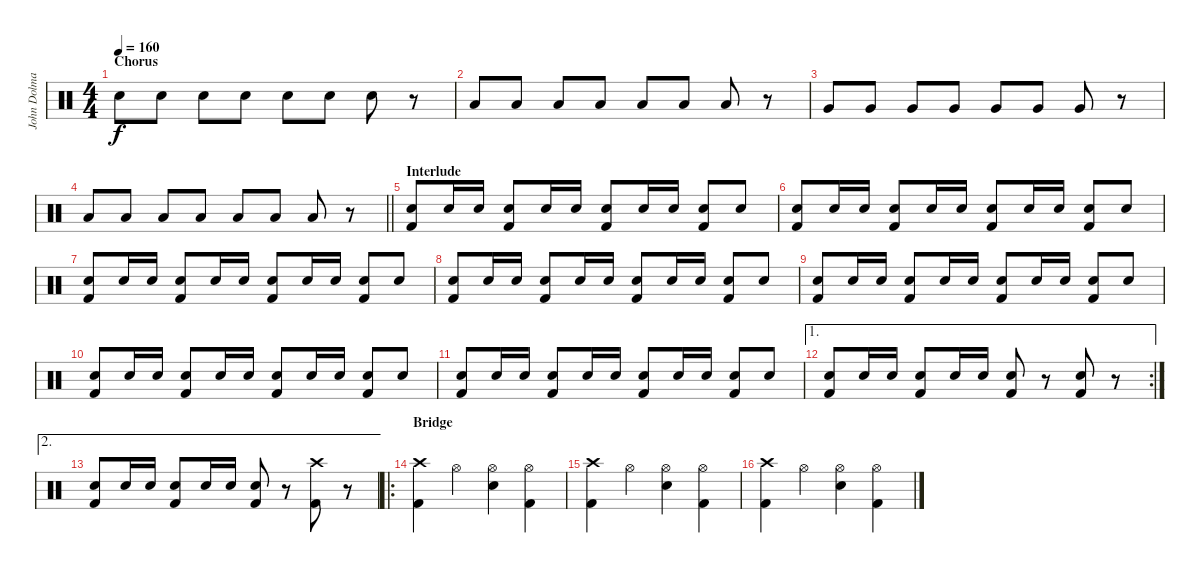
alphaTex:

\track ("John Dolmayan" "John Dolma") {instrument percussion}
\staff {score}
\articulation defaults
\ts (4 4)
\section ("" "Chorus")
\tempo 160
\clef neutral
\ks c "Electric Snare (hit)".8{dy f} "Electric Snare (hit)".8 "Electric Snare (hit)".8 "Electric Snare (hit)".8 "Electric Snare (hit)".8 "Electric Snare (hit)".8 "Electric Snare (hit)".8
r.8 |
"Low Tom (hit)".8 "Low Tom (hit)".8 "Low Tom (hit)".8 "Low Tom (hit)".8 "Low Tom (hit)".8 "Low Tom (hit)".8 "Low Tom (hit)".8 r.8 |
"Very Low Tom (hit)".8 "Very Low Tom (hit)".8 "Very Low Tom (hit)".8 "Very Low Tom (hit)".8 "Very Low Tom (hit)".8 "Very Low Tom (hit)".8 "Very Low Tom (hit)".8 r.8 |
\barLineRight lightlight "Low Floor Tom (hit)".8 "Low Floor Tom (hit)".8 "Low Floor Tom (hit)".8 "Low Floor Tom (hit)".8 "Low Floor Tom (hit)".8 "Low Floor Tom (hit)".8 "Low Floor Tom (hit)".8
r.8 |
\section ("" "Interlude")
("Electric Snare (hit)" "Kick (hit) 2").8 "Electric Snare (hit)".16 "Electric Snare (hit)".16 ("Electric Snare (hit)" "Kick (hit) 2").8 "Electric Snare (hit)".16 "Electric Snare (hit)".16 ("Electric Snare (hit)" "Kick (hit) 2").8 "Electric Snare (hit)".16 "Electric Snare (hit)".16 ("Electric Snare (hit)" "Kick (hit) 2").8 "Electric Snare (hit)".8 |
("Electric Snare (hit)" "Kick (hit) 2").8 "Electric Snare (hit)".16 "Electric Snare (hit)".16 ("Electric Snare (hit)" "Kick (hit) 2").8 "Electric Snare (hit)".16 "Electric Snare (hit)".16 ("Electric Snare (hit)" "Kick (hit) 2").8 "Electric Snare (hit)".16 "Electric Snare (hit)".16 ("Electric Snare (hit)" "Kick (hit) 2").8 "Electric Snare (hit)".8 |
("Electric Snare (hit)" "Kick (hit) 2").8 "Electric Snare (hit)".16 "Electric Snare (hit)".16 ("Electric Snare (hit)" "Kick (hit) 2").8 "Electric Snare (hit)".16 "Electric Snare (hit)".16 ("Electric Snare (hit)" "Kick (hit) 2").8 "Electric Snare (hit)".16 "Electric Snare (hit)".16 ("Electric Snare (hit)" "Kick (hit) 2").8 "Electric Snare (hit)".8 |
("Electric Snare (hit)" "Kick (hit) 2").8 "Electric Snare (hit)".16 "Electric Snare (hit)".16 ("Electric Snare (hit)" "Kick (hit) 2").8 "Electric Snare (hit)".16 "Electric Snare (hit)".16 ("Electric Snare (hit)" "Kick (hit) 2").8 "Electric Snare (hit)".16 "Electric Snare (hit)".16 ("Electric Snare (hit)" "Kick (hit) 2").8 "Electric Snare (hit)".8 |
("Electric Snare (hit)" "Kick (hit) 2").8 "Electric Snare (hit)".16 "Electric Snare (hit)".16 ("Electric Snare (hit)" "Kick (hit) 2").8 "Electric Snare (hit)".16 "Electric Snare (hit)".16 ("Electric Snare (hit)" "Kick (hit) 2").8 "Electric Snare (hit)".16 "Electric Snare (hit)".16 ("Electric Snare (hit)" "Kick (hit) 2").8 "Electric Snare (hit)".8 |
("Electric Snare (hit)" "Kick (hit) 2").8 "Electric Snare (hit)".16 "Electric Snare (hit)".16 ("Electric Snare (hit)" "Kick (hit) 2").8 "Electric Snare (hit)".16 "Electric Snare (hit)".16 ("Electric Snare (hit)" "Kick (hit) 2").8 "Electric Snare (hit)".16 "Electric Snare (hit)".16 ("Electric Snare (hit)" "Kick (hit) 2").8 "Electric Snare (hit)".8 |
("Electric Snare (hit)" "Kick (hit) 2").8 "Electric Snare (hit)".16 "Electric Snare (hit)".16 ("Electric Snare (hit)" "Kick (hit) 2").8 "Electric Snare (hit)".16 "Electric Snare (hit)".16 ("Electric Snare (hit)" "Kick (hit) 2").8 "Electric Snare (hit)".16 "Electric Snare (hit)".16 ("Electric Snare (hit)" "Kick (hit) 2").8 "Electric Snare (hit)".8 |
\ae 1
\rc 2
("Electric Snare (hit)" "Kick (hit) 2").8 "Electric Snare (hit)".16 "Electric Snare (hit)".16 ("Electric Snare (hit)" "Kick (hit) 2").8 "Electric Snare (hit)".16 "Electric Snare (hit)".16 ("Electric Snare (hit)" "Kick (hit) 2").8 r.8 ("Electric Snare (hit)" "Kick (hit) 2").8 r.8 |
\ae 2
("Electric Snare (hit)" "Kick (hit) 2").8 "Electric Snare (hit)".16 "Electric Snare (hit)".16 ("Electric Snare (hit)" "Kick (hit) 2").8 "Electric Snare (hit)".16 "Electric Snare (hit)".16 ("Electric Snare (hit)" "Kick (hit) 2").8 r.8 ("Crash high (hit)" "Kick (hit) 2").8 r.8 |
\ro
\section ("" "Bridge")
("Crash high (hit)" "Kick (hit) 2").4 "Hi-Hat (open)".4 ("Hi-Hat (open)" "Electric Snare (hit)").4 ("Hi-Hat (open)" "Kick (hit) 2").4 |
("Crash high (hit)" "Kick (hit) 2").4 "Hi-Hat (open)".4 ("Hi-Hat (open)" "Electric Snare (hit)").4 ("Hi-Hat (open)" "Kick (hit) 2").4 |
("Crash high (hit)" "Kick (hit) 2").4 "Hi-Hat (open)".4 ("Hi-Hat (open)" "Electric Snare (hit)").4 ("Hi-Hat (open)" "Kick (hit) 2").4
